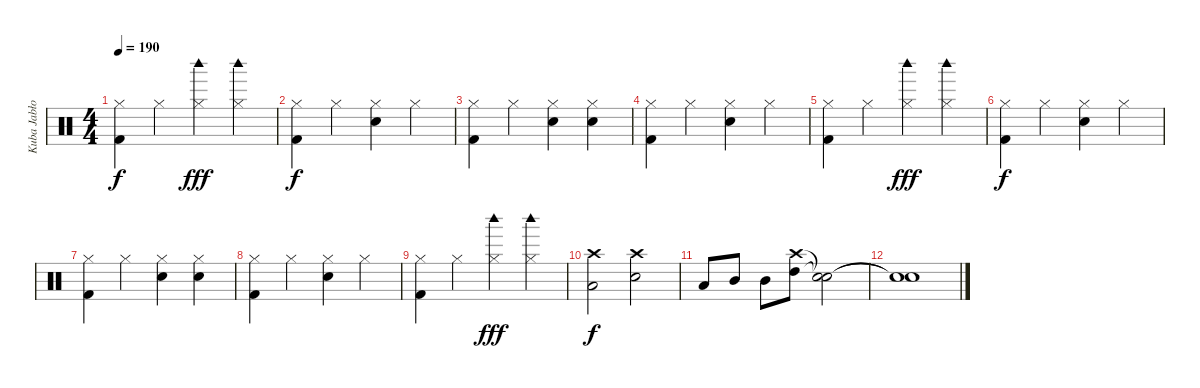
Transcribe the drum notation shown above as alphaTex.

\track ("Kuba Jabłoński" "Kuba Jabło") {instrument percussion}
\staff {score}
\articulation defaults
\ts (4 4)
\tempo 190
\clef neutral
\ks c
("Kick (hit) 2" "Hi-Hat (closed)").4{dy f} "Hi-Hat (closed)".4 ("Woodblock high (hit)" "Hi-Hat (closed)").4{dy fff} ("Woodblock high (hit)" "Hi-Hat (closed)").4 |
("Kick (hit) 2" "Hi-Hat (closed)").4{dy f} "Hi-Hat (closed)".4 ("Snare (hit) 2" "Hi-Hat (closed)").4 "Hi-Hat (closed)".4 |
("Kick (hit) 2" "Hi-Hat (closed)").4 "Hi-Hat (closed)".4 ("Snare (hit) 2" "Hi-Hat (closed)").4 ("Snare (hit) 2" "Hi-Hat (closed)").4 |
("Kick (hit) 2" "Hi-Hat (closed)").4 "Hi-Hat (closed)".4 ("Snare (hit) 2" "Hi-Hat (closed)").4 "Hi-Hat (closed)".4 |
("Kick (hit) 2" "Hi-Hat (closed)").4 "Hi-Hat (closed)".4 ("Woodblock high (hit)" "Hi-Hat (closed)").4{dy fff} ("Woodblock high (hit)" "Hi-Hat (closed)").4 |
("Kick (hit) 2" "Hi-Hat (closed)").4{dy f} "Hi-Hat (closed)".4 ("Snare (hit) 2" "Hi-Hat (closed)").4 "Hi-Hat (closed)".4 |
("Kick (hit) 2" "Hi-Hat (closed)").4 "Hi-Hat (closed)".4 ("Snare (hit) 2" "Hi-Hat (closed)").4 ("Snare (hit) 2" "Hi-Hat (closed)").4 |
("Kick (hit) 2" "Hi-Hat (closed)").4 "Hi-Hat (closed)".4 ("Snare (hit) 2" "Hi-Hat (closed)").4 "Hi-Hat (closed)".4 |
("Kick (hit) 2" "Hi-Hat (closed)").4 "Hi-Hat (closed)".4 ("Woodblock high (hit)" "Hi-Hat (closed)").4{dy fff} ("Woodblock high (hit)" "Hi-Hat (closed)").4 |
("Low Tom (hit)" "Crash high (hit)").2{dy f} ("Snare (hit) 2" "Crash high (hit)").2 |
"Low Tom (hit)".8 "Mid Tom (hit)".8 "Mid Tom (hit)".8 ("High Tom (hit)" "Crash high (hit)").8 ("Snare (hit)"{t} "Snare (hit)"{t}).2 |
("Snare (hit)"{t} "Snare (hit)"{t}).1
